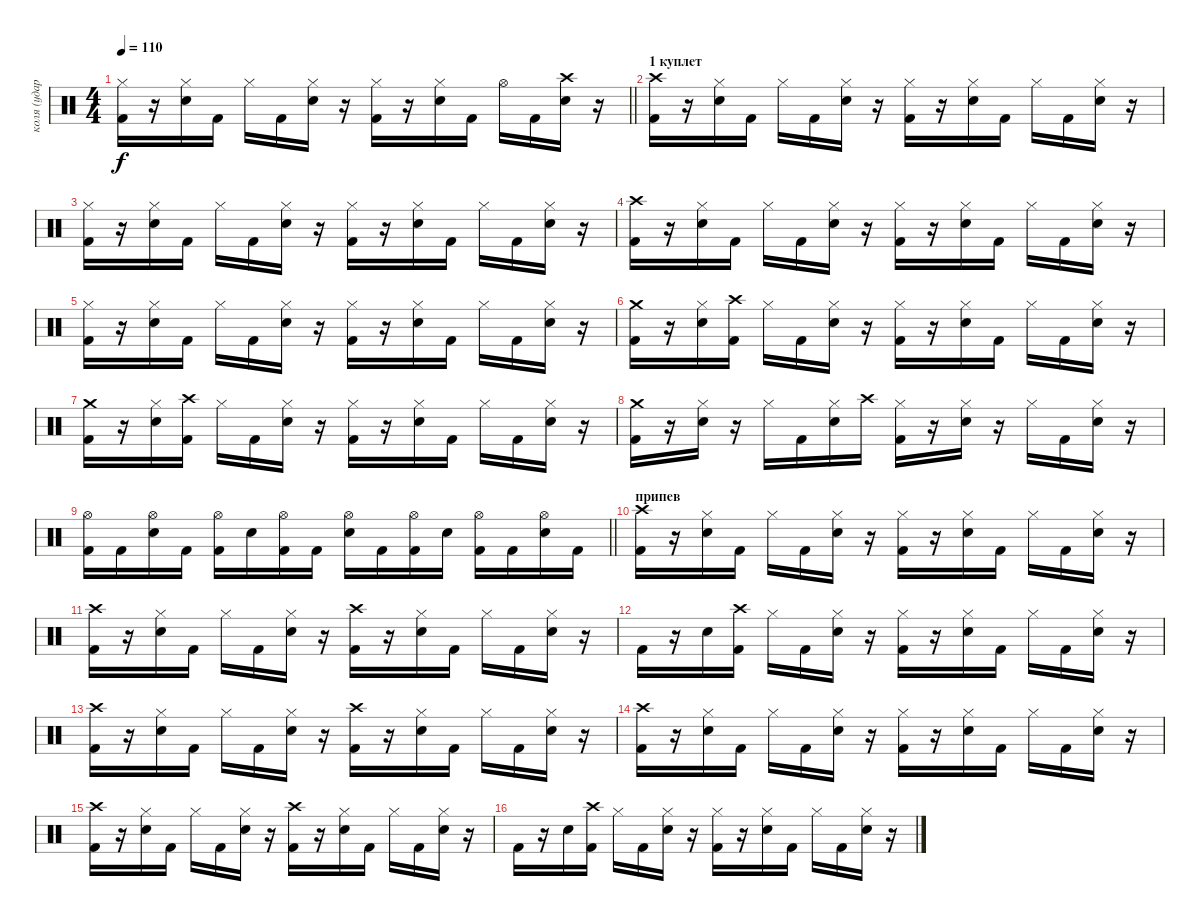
\track ("коля (ударные)" "коля (удар") {instrument percussion}
\staff {score}
\articulation defaults
\ts (4 4)
\tempo 110
\clef neutral
\barLineRight lightlight
\ks c
("Kick (hit) 2" "Hi-Hat (closed)").16{dy f} r.16 ("Snare (hit) 2" "Hi-Hat (closed)").16 "Kick (hit) 2".16 "Hi-Hat (closed)".16 "Kick (hit) 2".16 ("Snare (hit) 2" "Hi-Hat (closed)").16 r.16 ("Kick (hit) 2" "Hi-Hat (closed)").16 r.16 ("Snare (hit) 2" "Hi-Hat (closed)").16 "Kick (hit) 2".16 "Hi-Hat (open)".16 "Kick (hit) 2".16 ("Snare (hit) 2" "Crash high (hit)").16 r.16 |
\section ("" "1 куплет")
("Kick (hit) 2" "Crash high (hit)").16 r.16 ("Snare (hit) 2" "Hi-Hat (closed)").16 "Kick (hit) 2".16 "Hi-Hat (closed)".16 "Kick (hit) 2".16 ("Snare (hit) 2" "Hi-Hat (closed)").16 r.16 ("Kick (hit) 2" "Hi-Hat (closed)").16 r.16 ("Snare (hit) 2" "Hi-Hat (closed)").16 "Kick (hit) 2".16 "Hi-Hat (closed)".16 "Kick (hit) 2".16 ("Snare (hit) 2" "Hi-Hat (closed)").16 r.16 |
("Kick (hit) 2" "Hi-Hat (closed)").16 r.16 ("Snare (hit) 2" "Hi-Hat (closed)").16 "Kick (hit) 2".16 "Hi-Hat (closed)".16 "Kick (hit) 2".16 ("Snare (hit) 2" "Hi-Hat (closed)").16 r.16 ("Kick (hit) 2" "Hi-Hat (closed)").16 r.16 ("Snare (hit) 2" "Hi-Hat (closed)").16 "Kick (hit) 2".16 "Hi-Hat (closed)".16 "Kick (hit) 2".16 ("Snare (hit) 2" "Hi-Hat (closed)").16 r.16 |
("Kick (hit) 2" "Crash high (hit)").16 r.16 ("Snare (hit) 2" "Hi-Hat (closed)").16 "Kick (hit) 2".16 "Hi-Hat (closed)".16 "Kick (hit) 2".16 ("Snare (hit) 2" "Hi-Hat (closed)").16 r.16 ("Kick (hit) 2" "Hi-Hat (closed)").16 r.16 ("Snare (hit) 2" "Hi-Hat (closed)").16 "Kick (hit) 2".16 "Hi-Hat (closed)".16 "Kick (hit) 2".16 ("Snare (hit) 2" "Hi-Hat (closed)").16 r.16 |
("Kick (hit) 2" "Hi-Hat (closed)").16 r.16 ("Snare (hit) 2" "Hi-Hat (closed)").16 "Kick (hit) 2".16 "Hi-Hat (closed)".16 "Kick (hit) 2".16 ("Snare (hit) 2" "Hi-Hat (closed)").16 r.16 ("Kick (hit) 2" "Hi-Hat (closed)").16 r.16 ("Snare (hit) 2" "Hi-Hat (closed)").16 "Kick (hit) 2".16 "Hi-Hat (closed)".16 "Kick (hit) 2".16 ("Snare (hit) 2" "Hi-Hat (closed)").16 r.16 |
("Kick (hit) 2" "Crash medium (hit)").16 r.16 ("Snare (hit) 2" "Hi-Hat (closed)").16 ("Kick (hit) 2" "Crash high (hit)").16 "Hi-Hat (closed)".16 "Kick (hit) 2".16 ("Snare (hit) 2" "Hi-Hat (closed)").16 r.16 ("Kick (hit) 2" "Hi-Hat (closed)").16 r.16 ("Snare (hit) 2" "Hi-Hat (closed)").16 "Kick (hit) 2".16 "Hi-Hat (closed)".16 "Kick (hit) 2".16 ("Snare (hit) 2" "Hi-Hat (closed)").16 r.16 |
("Kick (hit) 2" "Crash medium (hit)").16 r.16 ("Snare (hit) 2" "Hi-Hat (closed)").16 ("Kick (hit) 2" "Crash high (hit)").16 "Hi-Hat (closed)".16 "Kick (hit) 2".16 ("Snare (hit) 2" "Hi-Hat (closed)").16 r.16 ("Kick (hit) 2" "Hi-Hat (closed)").16 r.16 ("Snare (hit) 2" "Hi-Hat (closed)").16 "Kick (hit) 2".16 "Hi-Hat (closed)".16 "Kick (hit) 2".16 ("Snare (hit) 2" "Hi-Hat (closed)").16 r.16 |
("Kick (hit) 2" "Crash medium (hit)").16 r.16 ("Snare (hit) 2" "Hi-Hat (closed)").16 r.16 "Hi-Hat (closed)".16 "Kick (hit) 2".16 ("Snare (hit) 2" "Hi-Hat (closed)").16 "Crash high (hit)".16 ("Kick (hit) 2" "Hi-Hat (closed)").16 r.16 ("Snare (hit) 2" "Hi-Hat (closed)").16 r.16 "Hi-Hat (closed)".16 "Kick (hit) 2".16 ("Snare (hit) 2" "Hi-Hat (closed)").16 r.16 |
\barLineRight lightlight
("Kick (hit) 2" "Hi-Hat (open)").16 "Kick (hit) 2".16 ("Snare (hit) 2" "Hi-Hat (open)").16 "Kick (hit) 2".16 ("Kick (hit) 2" "Hi-Hat (open)").16 "Snare (hit) 2".16 ("Kick (hit) 2" "Hi-Hat (open)").16 "Kick (hit) 2".16 ("Snare (hit) 2" "Hi-Hat (open)").16 "Kick (hit) 2".16 ("Kick (hit) 2" "Hi-Hat (open)").16 "Snare (hit) 2".16 ("Kick (hit) 2" "Hi-Hat (open)").16 "Kick (hit) 2".16 ("Snare (hit) 2" "Hi-Hat (open)").16 "Kick (hit) 2".16 |
\section ("" "припев")
("Kick (hit) 2" "Crash high (hit)").16 r.16 ("Snare (hit) 2" "Hi-Hat (closed)").16 "Kick (hit) 2".16 "Hi-Hat (closed)".16 "Kick (hit) 2".16 ("Snare (hit) 2" "Hi-Hat (closed)").16 r.16 ("Kick (hit) 2" "Hi-Hat (closed)").16 r.16 ("Snare (hit) 2" "Hi-Hat (closed)").16 "Kick (hit) 2".16 "Hi-Hat (closed)".16 "Kick (hit) 2".16 ("Snare (hit) 2" "Hi-Hat (closed)").16 r.16 |
("Kick (hit) 2" "Crash high (hit)").16 r.16 ("Snare (hit) 2" "Hi-Hat (closed)").16 "Kick (hit) 2".16 "Hi-Hat (closed)".16 "Kick (hit) 2".16 ("Snare (hit) 2" "Hi-Hat (closed)").16 r.16 ("Kick (hit) 2" "Crash high (hit)").16 r.16 ("Snare (hit) 2" "Hi-Hat (closed)").16 "Kick (hit) 2".16 "Hi-Hat (closed)".16 "Kick (hit) 2".16 ("Snare (hit) 2" "Hi-Hat (closed)").16 r.16 |
"Kick (hit) 2".16 r.16 "Snare (hit) 2".16 ("Kick (hit) 2" "Crash high (hit)").16 "Hi-Hat (closed)".16 "Kick (hit) 2".16 ("Snare (hit) 2" "Hi-Hat (closed)").16 r.16 ("Kick (hit) 2" "Hi-Hat (closed)").16 r.16 ("Snare (hit) 2" "Hi-Hat (closed)").16 "Kick (hit) 2".16 "Hi-Hat (closed)".16 "Kick (hit) 2".16 ("Snare (hit) 2" "Hi-Hat (closed)").16 r.16 |
("Kick (hit) 2" "Crash high (hit)").16 r.16 ("Snare (hit) 2" "Hi-Hat (closed)").16 "Kick (hit) 2".16 "Hi-Hat (closed)".16 "Kick (hit) 2".16 ("Snare (hit) 2" "Hi-Hat (closed)").16 r.16 ("Kick (hit) 2" "Crash high (hit)").16 r.16 ("Snare (hit) 2" "Hi-Hat (closed)").16 "Kick (hit) 2".16 "Hi-Hat (closed)".16 "Kick (hit) 2".16 ("Snare (hit) 2" "Hi-Hat (closed)").16 r.16 |
("Kick (hit) 2" "Crash high (hit)").16 r.16 ("Snare (hit) 2" "Hi-Hat (closed)").16 "Kick (hit) 2".16 "Hi-Hat (closed)".16 "Kick (hit) 2".16 ("Snare (hit) 2" "Hi-Hat (closed)").16 r.16 ("Kick (hit) 2" "Hi-Hat (closed)").16 r.16 ("Snare (hit) 2" "Hi-Hat (closed)").16 "Kick (hit) 2".16 "Hi-Hat (closed)".16 "Kick (hit) 2".16 ("Snare (hit) 2" "Hi-Hat (closed)").16 r.16 |
("Kick (hit) 2" "Crash high (hit)").16 r.16 ("Snare (hit) 2" "Hi-Hat (closed)").16 "Kick (hit) 2".16 "Hi-Hat (closed)".16 "Kick (hit) 2".16 ("Snare (hit) 2" "Hi-Hat (closed)").16 r.16 ("Kick (hit) 2" "Crash high (hit)").16 r.16 ("Snare (hit) 2" "Hi-Hat (closed)").16 "Kick (hit) 2".16 "Hi-Hat (closed)".16 "Kick (hit) 2".16 ("Snare (hit) 2" "Hi-Hat (closed)").16 r.16 |
"Kick (hit) 2".16 r.16 "Snare (hit) 2".16 ("Kick (hit) 2" "Crash high (hit)").16 "Hi-Hat (closed)".16 "Kick (hit) 2".16 ("Snare (hit) 2" "Hi-Hat (closed)").16 r.16 ("Kick (hit) 2" "Hi-Hat (closed)").16 r.16 ("Snare (hit) 2" "Hi-Hat (closed)").16 "Kick (hit) 2".16 "Hi-Hat (closed)".16 "Kick (hit) 2".16 ("Snare (hit) 2" "Hi-Hat (closed)").16 r.16
